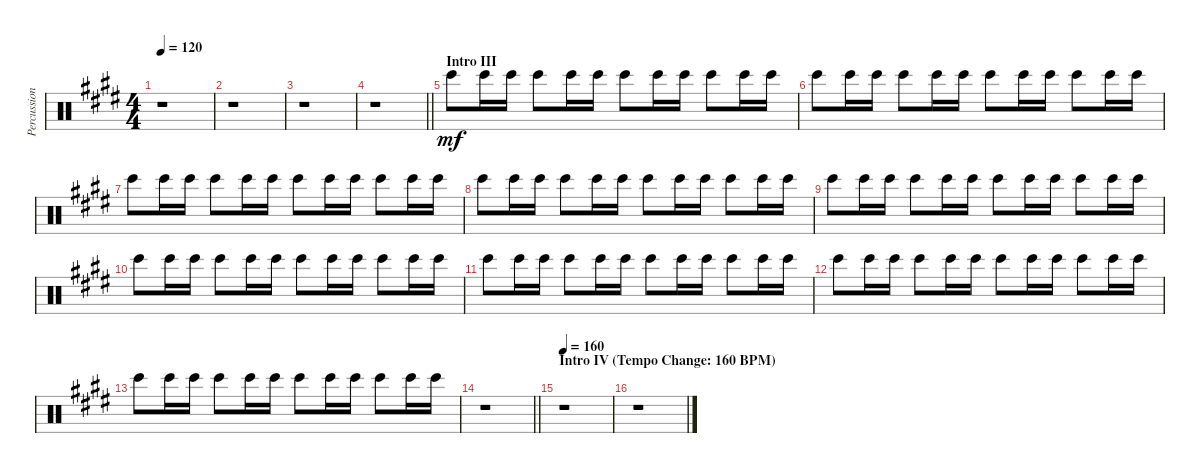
\track ("Percussion II" "Percussion") {instrument percussion}
\staff {score}
\articulation defaults
\ts (4 4)
\tempo 120
\clef neutral
\ks e
r.1{dy f} |
r.1 |
r.1 |
\barLineRight lightlight
r.1 |
\section ("" "Intro III")
"Bongo High (hit)".8{dy mf} "Bongo High (hit)".16 "Bongo High (hit)".16 "Bongo High (hit)".8 "Bongo High (hit)".16 "Bongo High (hit)".16 "Bongo High (hit)".8 "Bongo High (hit)".16 "Bongo High (hit)".16 "Bongo High (hit)".8 "Bongo High (hit)".16 "Bongo High (hit)".16 |
"Bongo High (hit)".8 "Bongo High (hit)".16 "Bongo High (hit)".16 "Bongo High (hit)".8 "Bongo High (hit)".16 "Bongo High (hit)".16 "Bongo High (hit)".8 "Bongo High (hit)".16 "Bongo High (hit)".16 "Bongo High (hit)".8 "Bongo High (hit)".16 "Bongo High (hit)".16 |
"Bongo High (hit)".8 "Bongo High (hit)".16 "Bongo High (hit)".16 "Bongo High (hit)".8 "Bongo High (hit)".16 "Bongo High (hit)".16 "Bongo High (hit)".8 "Bongo High (hit)".16 "Bongo High (hit)".16 "Bongo High (hit)".8 "Bongo High (hit)".16 "Bongo High (hit)".16 |
"Bongo High (hit)".8 "Bongo High (hit)".16 "Bongo High (hit)".16 "Bongo High (hit)".8 "Bongo High (hit)".16 "Bongo High (hit)".16 "Bongo High (hit)".8 "Bongo High (hit)".16 "Bongo High (hit)".16 "Bongo High (hit)".8 "Bongo High (hit)".16 "Bongo High (hit)".16 |
"Bongo High (hit)".8 "Bongo High (hit)".16 "Bongo High (hit)".16 "Bongo High (hit)".8 "Bongo High (hit)".16 "Bongo High (hit)".16 "Bongo High (hit)".8 "Bongo High (hit)".16 "Bongo High (hit)".16 "Bongo High (hit)".8 "Bongo High (hit)".16 "Bongo High (hit)".16 |
"Bongo High (hit)".8 "Bongo High (hit)".16 "Bongo High (hit)".16 "Bongo High (hit)".8 "Bongo High (hit)".16 "Bongo High (hit)".16 "Bongo High (hit)".8 "Bongo High (hit)".16 "Bongo High (hit)".16 "Bongo High (hit)".8 "Bongo High (hit)".16 "Bongo High (hit)".16 |
"Bongo High (hit)".8 "Bongo High (hit)".16 "Bongo High (hit)".16 "Bongo High (hit)".8 "Bongo High (hit)".16 "Bongo High (hit)".16 "Bongo High (hit)".8 "Bongo High (hit)".16 "Bongo High (hit)".16 "Bongo High (hit)".8 "Bongo High (hit)".16 "Bongo High (hit)".16 |
"Bongo High (hit)".8 "Bongo High (hit)".16 "Bongo High (hit)".16 "Bongo High (hit)".8 "Bongo High (hit)".16 "Bongo High (hit)".16 "Bongo High (hit)".8 "Bongo High (hit)".16 "Bongo High (hit)".16 "Bongo High (hit)".8 "Bongo High (hit)".16 "Bongo High (hit)".16 |
"Bongo High (hit)".8 "Bongo High (hit)".16 "Bongo High (hit)".16 "Bongo High (hit)".8 "Bongo High (hit)".16 "Bongo High (hit)".16 "Bongo High (hit)".8 "Bongo High (hit)".16 "Bongo High (hit)".16 "Bongo High (hit)".8 "Bongo High (hit)".16 "Bongo High (hit)".16 |
\barLineRight lightlight
r.1 |
\section ("" "Intro IV (Tempo Change: 160 BPM)")
\tempo 160
r.1 |
r.1
